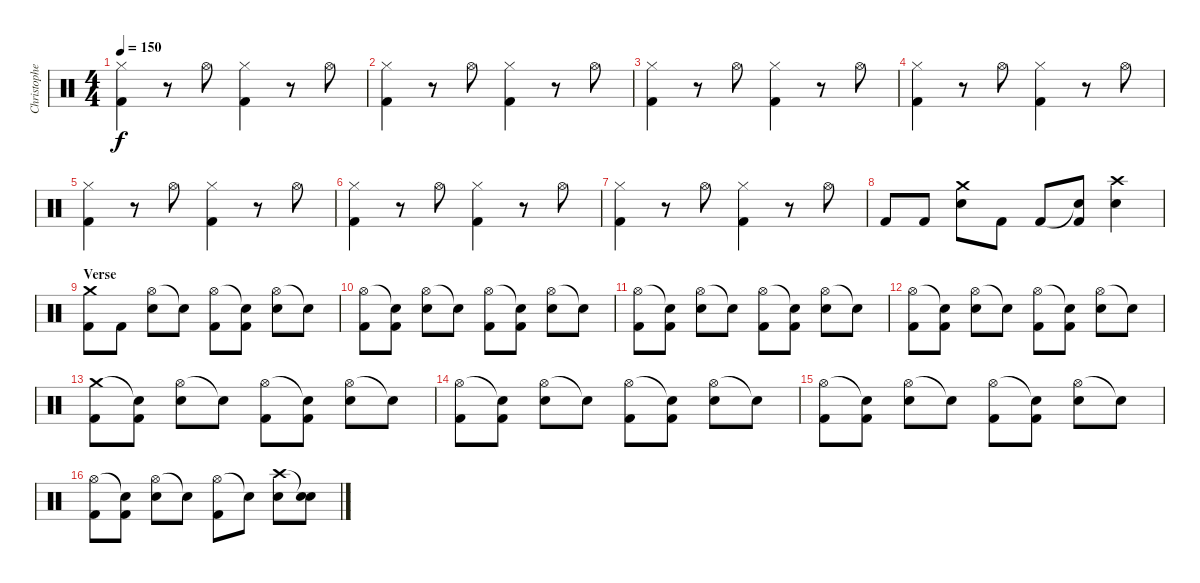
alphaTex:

\track ("Christopher Schneider" "Christophe") {instrument percussion}
\staff {score}
\articulation defaults
\ts (4 4)
\tempo 150
\clef neutral
\ks c
("Hi-Hat (closed)" "Kick (hit) 2").4{dy f} r.8 "Hi-Hat (open)".8 ("Hi-Hat (closed)" "Kick (hit) 2").4 r.8 "Hi-Hat (open)".8 |
("Hi-Hat (closed)" "Kick (hit) 2").4 r.8 "Hi-Hat (open)".8 ("Hi-Hat (closed)" "Kick (hit) 2").4 r.8 "Hi-Hat (open)".8 |
("Hi-Hat (closed)" "Kick (hit) 2").4 r.8 "Hi-Hat (open)".8 ("Hi-Hat (closed)" "Kick (hit) 2").4 r.8 "Hi-Hat (open)".8 |
("Hi-Hat (closed)" "Kick (hit) 2").4 r.8 "Hi-Hat (open)".8 ("Hi-Hat (closed)" "Kick (hit) 2").4 r.8 "Hi-Hat (open)".8 |
("Hi-Hat (closed)" "Kick (hit) 2").4 r.8 "Hi-Hat (open)".8 ("Hi-Hat (closed)" "Kick (hit) 2").4 r.8 "Hi-Hat (open)".8 |
("Hi-Hat (closed)" "Kick (hit) 2").4 r.8 "Hi-Hat (open)".8 ("Hi-Hat (closed)" "Kick (hit) 2").4 r.8 "Hi-Hat (open)".8 |
("Hi-Hat (closed)" "Kick (hit) 2").4 r.8 "Hi-Hat (open)".8 ("Hi-Hat (closed)" "Kick (hit) 2").4 r.8 "Hi-Hat (open)".8 |
"Kick (hit) 2".8{volume 16} "Kick (hit) 2".8 ("Crash medium (hit)" "Electric Snare (hit)").8 "Kick (hit) 2".8 "Kick (hit) 2".8 ("Snare (hit)"{t} "Kick (hit) 2").8 ("Crash high (hit)" "Electric Snare (hit)").4 |
\section ("" "Verse")
("Crash medium (hit)" "Kick (hit) 2").8 "Kick (hit) 2".8 ("Hi-Hat (open)" "Electric Snare (hit)").8 "Snare (hit)"{t}.8 ("Hi-Hat (open)" "Kick (hit) 2").8 ("Snare (hit)"{t} "Kick (hit) 2").8 ("Hi-Hat (open)" "Electric Snare (hit)").8 "Snare (hit)"{t}.8 |
("Hi-Hat (open)" "Kick (hit) 2").8 ("Snare (hit)"{t} "Kick (hit) 2").8 ("Hi-Hat (open)" "Electric Snare (hit)").8 "Snare (hit)"{t}.8 ("Hi-Hat (open)" "Kick (hit) 2").8 ("Snare (hit)"{t} "Kick (hit) 2").8 ("Hi-Hat (open)" "Electric Snare (hit)").8 "Snare (hit)"{t}.8 |
("Hi-Hat (open)" "Kick (hit) 2").8 ("Snare (hit)"{t} "Kick (hit) 2").8 ("Hi-Hat (open)" "Electric Snare (hit)").8 "Snare (hit)"{t}.8 ("Hi-Hat (open)" "Kick (hit) 2").8 ("Snare (hit)"{t} "Kick (hit) 2").8 ("Hi-Hat (open)" "Electric Snare (hit)").8 "Snare (hit)"{t}.8 |
("Hi-Hat (open)" "Kick (hit) 2").8 ("Snare (hit)"{t} "Kick (hit) 2").8 ("Hi-Hat (open)" "Electric Snare (hit)").8 "Snare (hit)"{t}.8 ("Hi-Hat (open)" "Kick (hit) 2").8 ("Snare (hit)"{t} "Kick (hit) 2").8 ("Hi-Hat (open)" "Electric Snare (hit)").8 "Snare (hit)"{t}.8 |
("Crash medium (hit)" "Kick (hit) 2").8 ("Snare (hit)"{t} "Kick (hit) 2").8 ("Hi-Hat (open)" "Electric Snare (hit)").8 "Snare (hit)"{t}.8 ("Hi-Hat (open)" "Kick (hit) 2").8 ("Snare (hit)"{t} "Kick (hit) 2").8 ("Hi-Hat (open)" "Electric Snare (hit)").8 "Snare (hit)"{t}.8 |
("Hi-Hat (open)" "Kick (hit) 2").8 ("Snare (hit)"{t} "Kick (hit) 2").8 ("Hi-Hat (open)" "Electric Snare (hit)").8 "Snare (hit)"{t}.8 ("Hi-Hat (open)" "Kick (hit) 2").8 ("Snare (hit)"{t} "Kick (hit) 2").8 ("Hi-Hat (open)" "Electric Snare (hit)").8 "Snare (hit)"{t}.8 |
("Hi-Hat (open)" "Kick (hit) 2").8 ("Snare (hit)"{t} "Kick (hit) 2").8 ("Hi-Hat (open)" "Electric Snare (hit)").8 "Snare (hit)"{t}.8 ("Hi-Hat (open)" "Kick (hit) 2").8 ("Snare (hit)"{t} "Kick (hit) 2").8 ("Hi-Hat (open)" "Electric Snare (hit)").8 "Snare (hit)"{t}.8 |
("Hi-Hat (open)" "Kick (hit) 2").8 ("Snare (hit)"{t} "Kick (hit) 2").8 ("Hi-Hat (open)" "Electric Snare (hit)").8 "Snare (hit)"{t}.8 ("Hi-Hat (open)" "Kick (hit) 2").8 "Snare (hit)"{t}.8 ("Crash high (hit)" "Electric Snare (hit)").8 ("Snare (hit)"{t} "Electric Snare (hit)").8
